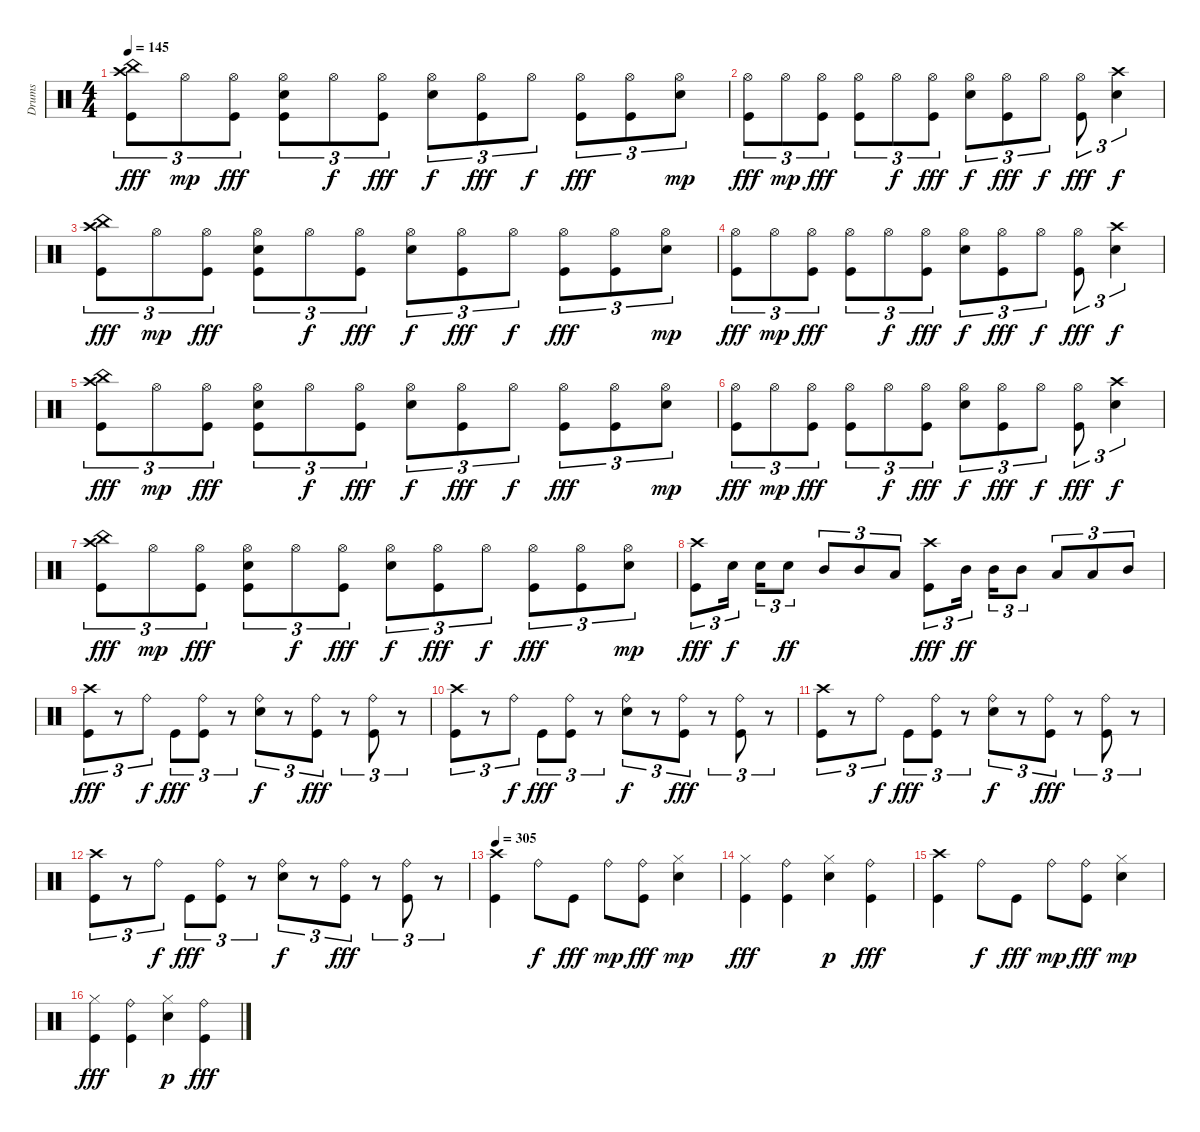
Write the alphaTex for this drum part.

\track ("Drums" "Drums") {instrument percussion}
\staff {score}
\articulation defaults
\ts (4 4)
\tempo 145
\clef neutral
\ks c
("Crash high (hit)" "China (hit)" "Kick (hit)").8{tu (3 2) dy fff} "Hi-Hat (open)".8{tu (3 2) dy mp} ("Hi-Hat (open)" "Kick (hit)").8{tu (3 2) dy fff} ("Hi-Hat (open)" "Snare (hit)" "Kick (hit)").8{tu (3 2)} "Hi-Hat (open)".8{tu (3 2) dy f} ("Hi-Hat (open)" "Kick (hit)").8{tu (3 2) dy fff} ("Hi-Hat (open)" "Electric Snare (hit)").8{tu (3 2) dy f} ("Hi-Hat (open)" "Kick (hit)").8{tu (3 2) dy fff} "Hi-Hat (open)".8{tu (3 2) dy f} ("Hi-Hat (open)" "Kick (hit)").8{tu (3 2) dy fff} ("Hi-Hat (open)" "Kick (hit)").8{tu (3 2)} ("Hi-Hat (open)" "Electric Snare (hit)").8{tu (3 2) dy mp} |
("Hi-Hat (open)" "Kick (hit)").8{tu (3 2) dy fff} "Hi-Hat (open)".8{tu (3 2) dy mp} ("Hi-Hat (open)" "Kick (hit)").8{tu (3 2) dy fff} ("Hi-Hat (open)" "Kick (hit)").8{tu (3 2)} "Hi-Hat (open)".8{tu (3 2) dy f} ("Hi-Hat (open)" "Kick (hit)").8{tu (3 2) dy fff} ("Hi-Hat (open)" "Electric Snare (hit)").8{tu (3 2) dy f} ("Hi-Hat (open)" "Kick (hit)").8{tu (3 2) dy fff} "Hi-Hat (open)".8{tu (3 2) dy f} ("Hi-Hat (open)" "Kick (hit)").8{tu (3 2) dy fff} ("Crash high (hit)" "Electric Snare (hit)").4{tu (3 2) dy f} |
("Crash high (hit)" "China (hit)" "Kick (hit)").8{tu (3 2) dy fff} "Hi-Hat (open)".8{tu (3 2) dy mp} ("Hi-Hat (open)" "Kick (hit)").8{tu (3 2) dy fff} ("Hi-Hat (open)" "Snare (hit)" "Kick (hit)").8{tu (3 2)} "Hi-Hat (open)".8{tu (3 2) dy f} ("Hi-Hat (open)" "Kick (hit)").8{tu (3 2) dy fff} ("Hi-Hat (open)" "Electric Snare (hit)").8{tu (3 2) dy f} ("Hi-Hat (open)" "Kick (hit)").8{tu (3 2) dy fff} "Hi-Hat (open)".8{tu (3 2) dy f} ("Hi-Hat (open)" "Kick (hit)").8{tu (3 2) dy fff} ("Hi-Hat (open)" "Kick (hit)").8{tu (3 2)} ("Hi-Hat (open)" "Electric Snare (hit)").8{tu (3 2) dy mp} |
("Hi-Hat (open)" "Kick (hit)").8{tu (3 2) dy fff} "Hi-Hat (open)".8{tu (3 2) dy mp} ("Hi-Hat (open)" "Kick (hit)").8{tu (3 2) dy fff} ("Hi-Hat (open)" "Kick (hit)").8{tu (3 2)} "Hi-Hat (open)".8{tu (3 2) dy f} ("Hi-Hat (open)" "Kick (hit)").8{tu (3 2) dy fff} ("Hi-Hat (open)" "Electric Snare (hit)").8{tu (3 2) dy f} ("Hi-Hat (open)" "Kick (hit)").8{tu (3 2) dy fff} "Hi-Hat (open)".8{tu (3 2) dy f} ("Hi-Hat (open)" "Kick (hit)").8{tu (3 2) dy fff} ("Crash high (hit)" "Electric Snare (hit)").4{tu (3 2) dy f} |
("Crash high (hit)" "China (hit)" "Kick (hit)").8{tu (3 2) dy fff} "Hi-Hat (open)".8{tu (3 2) dy mp} ("Hi-Hat (open)" "Kick (hit)").8{tu (3 2) dy fff} ("Hi-Hat (open)" "Snare (hit)" "Kick (hit)").8{tu (3 2)} "Hi-Hat (open)".8{tu (3 2) dy f} ("Hi-Hat (open)" "Kick (hit)").8{tu (3 2) dy fff} ("Hi-Hat (open)" "Electric Snare (hit)").8{tu (3 2) dy f} ("Hi-Hat (open)" "Kick (hit)").8{tu (3 2) dy fff} "Hi-Hat (open)".8{tu (3 2) dy f} ("Hi-Hat (open)" "Kick (hit)").8{tu (3 2) dy fff} ("Hi-Hat (open)" "Kick (hit)").8{tu (3 2)} ("Hi-Hat (open)" "Electric Snare (hit)").8{tu (3 2) dy mp} |
("Hi-Hat (open)" "Kick (hit)").8{tu (3 2) dy fff} "Hi-Hat (open)".8{tu (3 2) dy mp} ("Hi-Hat (open)" "Kick (hit)").8{tu (3 2) dy fff} ("Hi-Hat (open)" "Kick (hit)").8{tu (3 2)} "Hi-Hat (open)".8{tu (3 2) dy f} ("Hi-Hat (open)" "Kick (hit)").8{tu (3 2) dy fff} ("Hi-Hat (open)" "Electric Snare (hit)").8{tu (3 2) dy f} ("Hi-Hat (open)" "Kick (hit)").8{tu (3 2) dy fff} "Hi-Hat (open)".8{tu (3 2) dy f} ("Hi-Hat (open)" "Kick (hit)").8{tu (3 2) dy fff} ("Crash high (hit)" "Electric Snare (hit)").4{tu (3 2) dy f} |
("Crash high (hit)" "China (hit)" "Kick (hit)").8{tu (3 2) dy fff} "Hi-Hat (open)".8{tu (3 2) dy mp} ("Hi-Hat (open)" "Kick (hit)").8{tu (3 2) dy fff} ("Hi-Hat (open)" "Snare (hit)" "Kick (hit)").8{tu (3 2)} "Hi-Hat (open)".8{tu (3 2) dy f} ("Hi-Hat (open)" "Kick (hit)").8{tu (3 2) dy fff} ("Hi-Hat (open)" "Electric Snare (hit)").8{tu (3 2) dy f} ("Hi-Hat (open)" "Kick (hit)").8{tu (3 2) dy fff} "Hi-Hat (open)".8{tu (3 2) dy f} ("Hi-Hat (open)" "Kick (hit)").8{tu (3 2) dy fff} ("Hi-Hat (open)" "Kick (hit)").8{tu (3 2)} ("Hi-Hat (open)" "Electric Snare (hit)").8{tu (3 2) dy mp} |
("Crash high (hit)" "Kick (hit)").8{tu (3 2) dy fff} "Electric Snare (hit)".16{tu (3 2) dy f} "Electric Snare (hit)".16{tu (3 2)} "Electric Snare (hit)".8{tu (3 2) dy ff} "Mid Tom (hit)".8{tu (3 2)} "Mid Tom (hit)".8{tu (3 2)} "Low Tom (hit)".8{tu (3 2)} ("Crash high (hit)" "Kick (hit)").8{tu (3 2) dy fff} "Mid Tom (hit)".16{tu (3 2) dy ff} "Mid Tom (hit)".16{tu (3 2)} "Mid Tom (hit)".8{tu (3 2)} "Low Tom (hit)".8{tu (3 2)} "Low Tom (hit)".8{tu (3 2)} "Mid Tom (hit)".8{tu (3 2)} |
("Crash high (hit)" "Kick (hit)").8{tu (3 2) dy fff} r.8{tu (3 2)} "Ride (bell)".8{tu (3 2) dy f} "Kick (hit)".8{tu (3 2) dy fff} ("Ride (bell)" "Kick (hit)").8{tu (3 2)} r.8{tu (3 2)} ("Ride (bell)" "Electric Snare (hit)").8{tu (3 2) dy f} r.8{tu (3 2)} ("Ride (bell)" "Kick (hit)").8{tu (3 2) dy fff} r.8{tu (3 2)} ("Ride (bell)" "Kick (hit)").8{tu (3 2)} r.8{tu (3 2)} |
("Crash high (hit)" "Kick (hit)").8{tu (3 2)} r.8{tu (3 2)} "Ride (bell)".8{tu (3 2) dy f} "Kick (hit)".8{tu (3 2) dy fff} ("Ride (bell)" "Kick (hit)").8{tu (3 2)} r.8{tu (3 2)} ("Ride (bell)" "Electric Snare (hit)").8{tu (3 2) dy f} r.8{tu (3 2)} ("Ride (bell)" "Kick (hit)").8{tu (3 2) dy fff} r.8{tu (3 2)} ("Ride (bell)" "Kick (hit)").8{tu (3 2)} r.8{tu (3 2)} |
("Crash high (hit)" "Kick (hit)").8{tu (3 2)} r.8{tu (3 2)} "Ride (bell)".8{tu (3 2) dy f} "Kick (hit)".8{tu (3 2) dy fff} ("Ride (bell)" "Kick (hit)").8{tu (3 2)} r.8{tu (3 2)} ("Ride (bell)" "Electric Snare (hit)").8{tu (3 2) dy f} r.8{tu (3 2)} ("Ride (bell)" "Kick (hit)").8{tu (3 2) dy fff} r.8{tu (3 2)} ("Ride (bell)" "Kick (hit)").8{tu (3 2)} r.8{tu (3 2)} |
("Crash high (hit)" "Kick (hit)").8{tu (3 2)} r.8{tu (3 2)} "Ride (bell)".8{tu (3 2) dy f} "Kick (hit)".8{tu (3 2) dy fff} ("Ride (bell)" "Kick (hit)").8{tu (3 2)} r.8{tu (3 2)} ("Ride (bell)" "Electric Snare (hit)").8{tu (3 2) dy f} r.8{tu (3 2)} ("Ride (bell)" "Kick (hit)").8{tu (3 2) dy fff} r.8{tu (3 2)} ("Ride (bell)" "Kick (hit)").8{tu (3 2)} r.8{tu (3 2)} |
\tempo 305
("Crash high (hit)" "Kick (hit)").4 "Ride (bell)".8{dy f} "Kick (hit)".8{dy fff} "Ride (bell)".8{dy mp} ("Ride (bell)" "Kick (hit)").8{dy fff} ("Hi-Hat (closed)" "Electric Snare (hit)").4{dy mp} |
("Hi-Hat (closed)" "Kick (hit)").4{dy fff} ("Ride (bell)" "Kick (hit)").4 ("Hi-Hat (closed)" "Electric Snare (hit)").4{dy p} ("Ride (bell)" "Kick (hit)").4{dy fff} |
("Crash high (hit)" "Kick (hit)").4 "Ride (bell)".8{dy f} "Kick (hit)".8{dy fff} "Ride (bell)".8{dy mp} ("Ride (bell)" "Kick (hit)").8{dy fff} ("Hi-Hat (closed)" "Electric Snare (hit)").4{dy mp} |
("Hi-Hat (closed)" "Kick (hit)").4{dy fff} ("Ride (bell)" "Kick (hit)").4 ("Hi-Hat (closed)" "Electric Snare (hit)").4{dy p} ("Ride (bell)" "Kick (hit)").4{dy fff}
